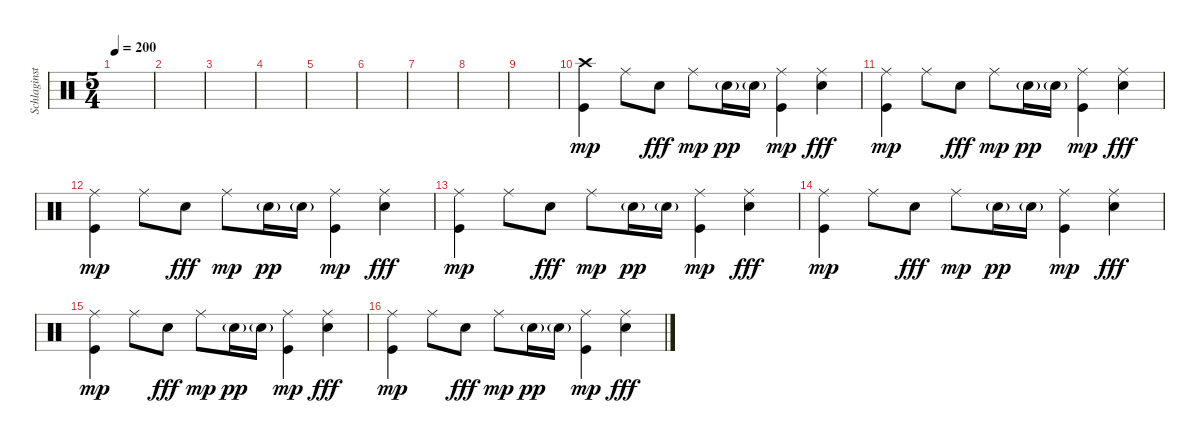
\track ("Schlaginstrumente - Auswahl" "Schlaginst") {instrument percussion}
\staff {score}
\articulation defaults
\ts (5 4)
\tempo 200
\clef neutral
\ks c
|
|
|
|
|
|
|
|
|
("Crash high (hit)" "Kick (hit)").4{dy mp} "Ride (middle)".8 "Snare (hit) 2".8{dy fff} "Ride (middle)".8{dy mp} "Snare (hit) 2"{g}.16{dy pp} "Snare (hit) 2"{g}.16 ("Ride (middle)" "Kick (hit)").4{dy mp} ("Ride (middle)" "Snare (hit) 2").4{dy fff} |
("Ride (middle)" "Kick (hit)").4{dy mp} "Ride (middle)".8 "Snare (hit) 2".8{dy fff} "Ride (middle)".8{dy mp} "Snare (hit) 2"{g}.16{dy pp} "Snare (hit) 2"{g}.16 ("Ride (middle)" "Kick (hit)").4{dy mp} ("Ride (middle)" "Snare (hit) 2").4{dy fff} |
("Ride (middle)" "Kick (hit)").4{dy mp} "Ride (middle)".8 "Snare (hit) 2".8{dy fff} "Ride (middle)".8{dy mp} "Snare (hit) 2"{g}.16{dy pp} "Snare (hit) 2"{g}.16 ("Ride (middle)" "Kick (hit)").4{dy mp} ("Ride (middle)" "Snare (hit) 2").4{dy fff} |
("Ride (middle)" "Kick (hit)").4{dy mp} "Ride (middle)".8 "Snare (hit) 2".8{dy fff} "Ride (middle)".8{dy mp} "Snare (hit) 2"{g}.16{dy pp} "Snare (hit) 2"{g}.16 ("Ride (middle)" "Kick (hit)").4{dy mp} ("Ride (middle)" "Snare (hit) 2").4{dy fff} |
("Ride (middle)" "Kick (hit)").4{dy mp} "Ride (middle)".8 "Snare (hit) 2".8{dy fff} "Ride (middle)".8{dy mp} "Snare (hit) 2"{g}.16{dy pp} "Snare (hit) 2"{g}.16 ("Ride (middle)" "Kick (hit)").4{dy mp} ("Ride (middle)" "Snare (hit) 2").4{dy fff} |
("Ride (middle)" "Kick (hit)").4{dy mp} "Ride (middle)".8 "Snare (hit) 2".8{dy fff} "Ride (middle)".8{dy mp} "Snare (hit) 2"{g}.16{dy pp} "Snare (hit) 2"{g}.16 ("Ride (middle)" "Kick (hit)").4{dy mp} ("Ride (middle)" "Snare (hit) 2").4{dy fff} |
("Ride (middle)" "Kick (hit)").4{dy mp} "Ride (middle)".8 "Snare (hit) 2".8{dy fff} "Ride (middle)".8{dy mp} "Snare (hit) 2"{g}.16{dy pp} "Snare (hit) 2"{g}.16 ("Ride (middle)" "Kick (hit)").4{dy mp} ("Ride (middle)" "Snare (hit) 2").4{dy fff}
